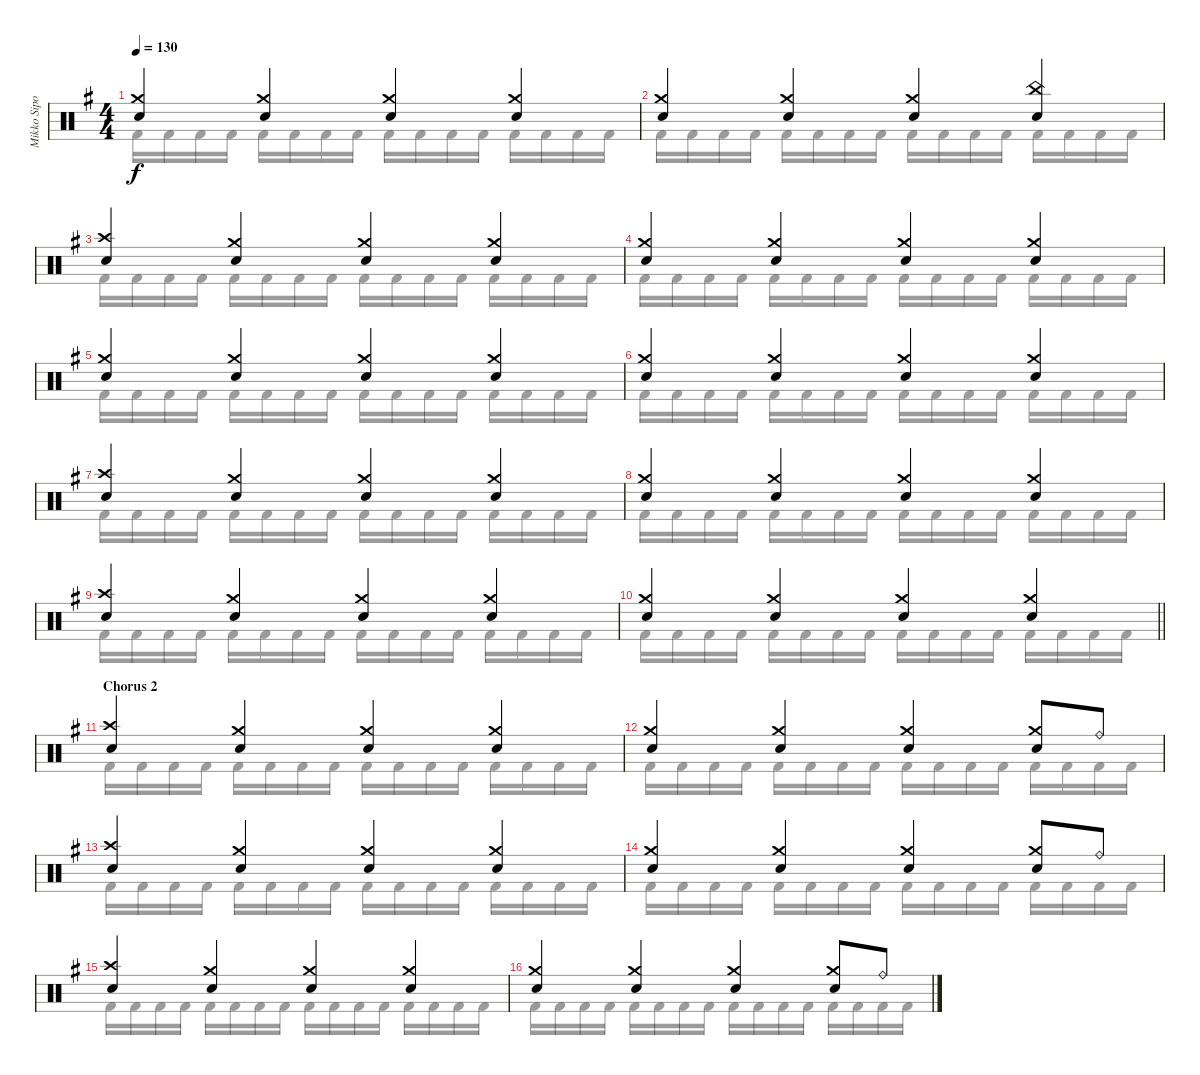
\track ("Mikko Sipola (drums)" "Mikko Sipo") {instrument percussion}
\staff {score}
\articulation defaults
\voice
\ts (4 4)
\tempo 130
\clef neutral
\ks eminor
("Crash medium (hit)" "Electric Snare (hit)").4{dy f} ("Crash medium (hit)" "Electric Snare (hit)").4 ("Crash medium (hit)" "Electric Snare (hit)").4 ("Crash medium (hit)" "Electric Snare (hit)").4 |
("Crash medium (hit)" "Electric Snare (hit)").4 ("Crash medium (hit)" "Electric Snare (hit)").4 ("Crash medium (hit)" "Electric Snare (hit)").4 ("China (hit)" "Electric Snare (hit)").4 |
("Crash high (hit)" "Electric Snare (hit)").4 ("Crash medium (hit)" "Electric Snare (hit)").4 ("Crash medium (hit)" "Electric Snare (hit)").4 ("Crash medium (hit)" "Electric Snare (hit)").4 |
("Crash medium (hit)" "Electric Snare (hit)").4 ("Crash medium (hit)" "Electric Snare (hit)").4 ("Crash medium (hit)" "Electric Snare (hit)").4 ("Crash medium (hit)" "Electric Snare (hit)").4 |
("Crash medium (hit)" "Electric Snare (hit)").4 ("Crash medium (hit)" "Electric Snare (hit)").4 ("Crash medium (hit)" "Electric Snare (hit)").4 ("Crash medium (hit)" "Electric Snare (hit)").4 |
("Crash medium (hit)" "Electric Snare (hit)").4 ("Crash medium (hit)" "Electric Snare (hit)").4 ("Crash medium (hit)" "Electric Snare (hit)").4 ("Crash medium (hit)" "Electric Snare (hit)").4 |
("Crash high (hit)" "Electric Snare (hit)").4 ("Crash medium (hit)" "Electric Snare (hit)").4 ("Crash medium (hit)" "Electric Snare (hit)").4 ("Crash medium (hit)" "Electric Snare (hit)").4 |
("Crash medium (hit)" "Electric Snare (hit)").4 ("Crash medium (hit)" "Electric Snare (hit)").4 ("Crash medium (hit)" "Electric Snare (hit)").4 ("Crash medium (hit)" "Electric Snare (hit)").4 |
("Crash high (hit)" "Electric Snare (hit)").4 ("Crash medium (hit)" "Electric Snare (hit)").4 ("Crash medium (hit)" "Electric Snare (hit)").4 ("Crash medium (hit)" "Electric Snare (hit)").4 |
\barLineRight lightlight
("Crash medium (hit)" "Electric Snare (hit)").4 ("Crash medium (hit)" "Electric Snare (hit)").4 ("Crash medium (hit)" "Electric Snare (hit)").4 ("Crash medium (hit)" "Electric Snare (hit)").4 |
\section ("" "Chorus 2")
("Crash high (hit)" "Electric Snare (hit)").4 ("Crash medium (hit)" "Electric Snare (hit)").4 ("Crash medium (hit)" "Electric Snare (hit)").4 ("Crash medium (hit)" "Electric Snare (hit)").4 |
("Crash medium (hit)" "Electric Snare (hit)").4 ("Crash medium (hit)" "Electric Snare (hit)").4 ("Crash medium (hit)" "Electric Snare (hit)").4 ("Crash medium (hit)" "Electric Snare (hit)").8 "Ride (bell)".8 |
("Crash high (hit)" "Electric Snare (hit)").4 ("Crash medium (hit)" "Electric Snare (hit)").4 ("Crash medium (hit)" "Electric Snare (hit)").4 ("Crash medium (hit)" "Electric Snare (hit)").4 |
("Crash medium (hit)" "Electric Snare (hit)").4 ("Crash medium (hit)" "Electric Snare (hit)").4 ("Crash medium (hit)" "Electric Snare (hit)").4 ("Crash medium (hit)" "Electric Snare (hit)").8 "Ride (bell)".8 |
("Crash high (hit)" "Electric Snare (hit)").4 ("Crash medium (hit)" "Electric Snare (hit)").4 ("Crash medium (hit)" "Electric Snare (hit)").4 ("Crash medium (hit)" "Electric Snare (hit)").4 |
("Crash medium (hit)" "Electric Snare (hit)").4 ("Crash medium (hit)" "Electric Snare (hit)").4 ("Crash medium (hit)" "Electric Snare (hit)").4 ("Crash medium (hit)" "Electric Snare (hit)").8 "Ride (bell)".8
\voice
\clef neutral
\ottava regular
\simile none
\ks eminor "Kick (hit) 2".16{dy f} "Kick (hit) 2".16 "Kick (hit) 2".16 "Kick (hit) 2".16 "Kick (hit) 2".16 "Kick (hit) 2".16 "Kick (hit) 2".16 "Kick (hit) 2".16 "Kick (hit) 2".16 "Kick (hit) 2".16 "Kick (hit) 2".16 "Kick (hit) 2".16 "Kick (hit) 2".16 "Kick (hit) 2".16 "Kick (hit) 2".16 "Kick (hit) 2".16
|
"Kick (hit) 2".16 "Kick (hit) 2".16 "Kick (hit) 2".16 "Kick (hit) 2".16 "Kick (hit) 2".16 "Kick (hit) 2".16 "Kick (hit) 2".16 "Kick (hit) 2".16 "Kick (hit) 2".16 "Kick (hit) 2".16 "Kick (hit) 2".16 "Kick (hit) 2".16 "Kick (hit) 2".16 "Kick (hit) 2".16 "Kick (hit) 2".16 "Kick (hit) 2".16 |
"Kick (hit) 2".16 "Kick (hit) 2".16 "Kick (hit) 2".16 "Kick (hit) 2".16 "Kick (hit) 2".16 "Kick (hit) 2".16 "Kick (hit) 2".16 "Kick (hit) 2".16 "Kick (hit) 2".16 "Kick (hit) 2".16 "Kick (hit) 2".16 "Kick (hit) 2".16 "Kick (hit) 2".16 "Kick (hit) 2".16 "Kick (hit) 2".16 "Kick (hit) 2".16 |
"Kick (hit) 2".16 "Kick (hit) 2".16 "Kick (hit) 2".16 "Kick (hit) 2".16 "Kick (hit) 2".16 "Kick (hit) 2".16 "Kick (hit) 2".16 "Kick (hit) 2".16 "Kick (hit) 2".16 "Kick (hit) 2".16 "Kick (hit) 2".16 "Kick (hit) 2".16 "Kick (hit) 2".16 "Kick (hit) 2".16 "Kick (hit) 2".16 "Kick (hit) 2".16 |
"Kick (hit) 2".16 "Kick (hit) 2".16 "Kick (hit) 2".16 "Kick (hit) 2".16 "Kick (hit) 2".16 "Kick (hit) 2".16 "Kick (hit) 2".16 "Kick (hit) 2".16 "Kick (hit) 2".16 "Kick (hit) 2".16 "Kick (hit) 2".16 "Kick (hit) 2".16 "Kick (hit) 2".16 "Kick (hit) 2".16 "Kick (hit) 2".16 "Kick (hit) 2".16 |
"Kick (hit) 2".16 "Kick (hit) 2".16 "Kick (hit) 2".16 "Kick (hit) 2".16 "Kick (hit) 2".16 "Kick (hit) 2".16 "Kick (hit) 2".16 "Kick (hit) 2".16 "Kick (hit) 2".16 "Kick (hit) 2".16 "Kick (hit) 2".16 "Kick (hit) 2".16 "Kick (hit) 2".16 "Kick (hit) 2".16 "Kick (hit) 2".16 "Kick (hit) 2".16 |
"Kick (hit) 2".16 "Kick (hit) 2".16 "Kick (hit) 2".16 "Kick (hit) 2".16 "Kick (hit) 2".16 "Kick (hit) 2".16 "Kick (hit) 2".16 "Kick (hit) 2".16 "Kick (hit) 2".16 "Kick (hit) 2".16 "Kick (hit) 2".16 "Kick (hit) 2".16 "Kick (hit) 2".16 "Kick (hit) 2".16 "Kick (hit) 2".16 "Kick (hit) 2".16 |
"Kick (hit) 2".16 "Kick (hit) 2".16 "Kick (hit) 2".16 "Kick (hit) 2".16 "Kick (hit) 2".16 "Kick (hit) 2".16 "Kick (hit) 2".16 "Kick (hit) 2".16 "Kick (hit) 2".16 "Kick (hit) 2".16 "Kick (hit) 2".16 "Kick (hit) 2".16 "Kick (hit) 2".16 "Kick (hit) 2".16 "Kick (hit) 2".16 "Kick (hit) 2".16 |
"Kick (hit) 2".16 "Kick (hit) 2".16 "Kick (hit) 2".16 "Kick (hit) 2".16 "Kick (hit) 2".16 "Kick (hit) 2".16 "Kick (hit) 2".16 "Kick (hit) 2".16 "Kick (hit) 2".16 "Kick (hit) 2".16 "Kick (hit) 2".16 "Kick (hit) 2".16 "Kick (hit) 2".16 "Kick (hit) 2".16 "Kick (hit) 2".16 "Kick (hit) 2".16 |
\barLineRight lightlight "Kick (hit) 2".16 "Kick (hit) 2".16 "Kick (hit) 2".16 "Kick (hit) 2".16 "Kick (hit) 2".16 "Kick (hit) 2".16 "Kick (hit) 2".16 "Kick (hit) 2".16 "Kick (hit) 2".16 "Kick (hit) 2".16 "Kick (hit) 2".16 "Kick (hit) 2".16 "Kick (hit) 2".16 "Kick (hit) 2".16 "Kick (hit) 2".16 "Kick (hit) 2".16
|
"Kick (hit) 2".16 "Kick (hit) 2".16 "Kick (hit) 2".16 "Kick (hit) 2".16 "Kick (hit) 2".16 "Kick (hit) 2".16 "Kick (hit) 2".16 "Kick (hit) 2".16 "Kick (hit) 2".16 "Kick (hit) 2".16 "Kick (hit) 2".16 "Kick (hit) 2".16 "Kick (hit) 2".16 "Kick (hit) 2".16 "Kick (hit) 2".16 "Kick (hit) 2".16 |
"Kick (hit) 2".16 "Kick (hit) 2".16 "Kick (hit) 2".16 "Kick (hit) 2".16 "Kick (hit) 2".16 "Kick (hit) 2".16 "Kick (hit) 2".16 "Kick (hit) 2".16 "Kick (hit) 2".16 "Kick (hit) 2".16 "Kick (hit) 2".16 "Kick (hit) 2".16 "Kick (hit) 2".16 "Kick (hit) 2".16 "Kick (hit) 2".16 "Kick (hit) 2".16 |
"Kick (hit) 2".16 "Kick (hit) 2".16 "Kick (hit) 2".16 "Kick (hit) 2".16 "Kick (hit) 2".16 "Kick (hit) 2".16 "Kick (hit) 2".16 "Kick (hit) 2".16 "Kick (hit) 2".16 "Kick (hit) 2".16 "Kick (hit) 2".16 "Kick (hit) 2".16 "Kick (hit) 2".16 "Kick (hit) 2".16 "Kick (hit) 2".16 "Kick (hit) 2".16 |
"Kick (hit) 2".16 "Kick (hit) 2".16 "Kick (hit) 2".16 "Kick (hit) 2".16 "Kick (hit) 2".16 "Kick (hit) 2".16 "Kick (hit) 2".16 "Kick (hit) 2".16 "Kick (hit) 2".16 "Kick (hit) 2".16 "Kick (hit) 2".16 "Kick (hit) 2".16 "Kick (hit) 2".16 "Kick (hit) 2".16 "Kick (hit) 2".16 "Kick (hit) 2".16 |
"Kick (hit) 2".16 "Kick (hit) 2".16 "Kick (hit) 2".16 "Kick (hit) 2".16 "Kick (hit) 2".16 "Kick (hit) 2".16 "Kick (hit) 2".16 "Kick (hit) 2".16 "Kick (hit) 2".16 "Kick (hit) 2".16 "Kick (hit) 2".16 "Kick (hit) 2".16 "Kick (hit) 2".16 "Kick (hit) 2".16 "Kick (hit) 2".16 "Kick (hit) 2".16 |
"Kick (hit) 2".16 "Kick (hit) 2".16 "Kick (hit) 2".16 "Kick (hit) 2".16 "Kick (hit) 2".16 "Kick (hit) 2".16 "Kick (hit) 2".16 "Kick (hit) 2".16 "Kick (hit) 2".16 "Kick (hit) 2".16 "Kick (hit) 2".16 "Kick (hit) 2".16 "Kick (hit) 2".16 "Kick (hit) 2".16 "Kick (hit) 2".16 "Kick (hit) 2".16
